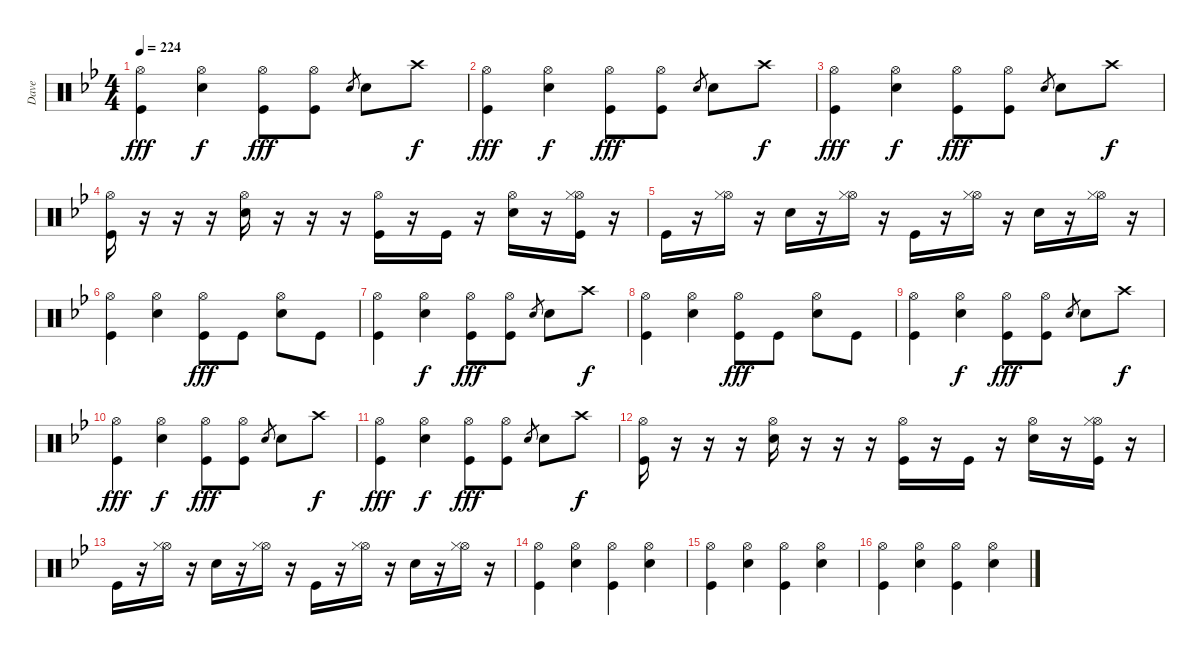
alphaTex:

\track ("Dave" "Dave") {instrument percussion}
\staff {score}
\articulation defaults
\ts (4 4)
\tempo 224
\clef neutral
\ks gminor
("Hi-Hat (open)" "Kick (hit)").4{dy fff} ("Hi-Hat (open)" "Snare (hit) 2").4{dy f} ("Hi-Hat (open)" "Kick (hit)").8{dy fff} ("Hi-Hat (open)" "Kick (hit)").8 "Snare (hit) 2".8{gr} "Snare (hit) 2".8 "Crash high (hit)".8{dy f} |
("Hi-Hat (open)" "Kick (hit)").4{dy fff} ("Hi-Hat (open)" "Snare (hit) 2").4{dy f} ("Hi-Hat (open)" "Kick (hit)").8{dy fff} ("Hi-Hat (open)" "Kick (hit)").8 "Snare (hit) 2".8{gr} "Snare (hit) 2".8 "Crash high (hit)".8{dy f} |
("Hi-Hat (open)" "Kick (hit)").4{dy fff} ("Hi-Hat (open)" "Snare (hit) 2").4{dy f} ("Hi-Hat (open)" "Kick (hit)").8{dy fff} ("Hi-Hat (open)" "Kick (hit)").8 "Snare (hit) 2".8{gr} "Snare (hit) 2".8 "Crash high (hit)".8{dy f} |
("Hi-Hat (open)" "Kick (hit)").16 r.16 r.16 r.16 ("Hi-Hat (open)" "Snare (hit) 2").16 r.16 r.16 r.16 ("Hi-Hat (open)" "Kick (hit)").16 r.16 "Kick (hit)".16 r.16 ("Hi-Hat (open)" "Snare (hit) 2").16 r.16 ("Hi-Hat (open)" "Hi-Hat (closed)" "Kick (hit)").16 r.16 |
"Kick (hit)".16 r.16 ("Hi-Hat (open)" "Hi-Hat (closed)").16 r.16 "Snare (hit) 2".16 r.16 ("Hi-Hat (open)" "Hi-Hat (closed)").16 r.16 "Kick (hit)".16 r.16 ("Hi-Hat (open)" "Hi-Hat (closed)").16 r.16 "Snare (hit) 2".16 r.16 ("Hi-Hat (open)" "Hi-Hat (closed)").16 r.16 |
("Hi-Hat (open)" "Kick (hit)").4 ("Hi-Hat (open)" "Snare (hit) 2").4 ("Hi-Hat (open)" "Kick (hit)").8{dy fff} "Kick (hit)".8 ("Hi-Hat (open)" "Snare (hit) 2").8 "Kick (hit)".8 |
("Hi-Hat (open)" "Kick (hit)").4 ("Hi-Hat (open)" "Snare (hit) 2").4{dy f} ("Hi-Hat (open)" "Kick (hit)").8{dy fff} ("Hi-Hat (open)" "Kick (hit)").8 "Snare (hit) 2".8{gr} "Snare (hit) 2".8 "Crash high (hit)".8{dy f} |
("Hi-Hat (open)" "Kick (hit)").4 ("Hi-Hat (open)" "Snare (hit) 2").4 ("Hi-Hat (open)" "Kick (hit)").8{dy fff} "Kick (hit)".8 ("Hi-Hat (open)" "Snare (hit) 2").8 "Kick (hit)".8 |
("Hi-Hat (open)" "Kick (hit)").4 ("Hi-Hat (open)" "Snare (hit) 2").4{dy f} ("Hi-Hat (open)" "Kick (hit)").8{dy fff} ("Hi-Hat (open)" "Kick (hit)").8 "Snare (hit) 2".8{gr} "Snare (hit) 2".8 "Crash high (hit)".8{dy f} |
("Hi-Hat (open)" "Kick (hit)").4{dy fff} ("Hi-Hat (open)" "Snare (hit) 2").4{dy f} ("Hi-Hat (open)" "Kick (hit)").8{dy fff} ("Hi-Hat (open)" "Kick (hit)").8 "Snare (hit) 2".8{gr} "Snare (hit) 2".8 "Crash high (hit)".8{dy f} |
("Hi-Hat (open)" "Kick (hit)").4{dy fff} ("Hi-Hat (open)" "Snare (hit) 2").4{dy f} ("Hi-Hat (open)" "Kick (hit)").8{dy fff} ("Hi-Hat (open)" "Kick (hit)").8 "Snare (hit) 2".8{gr} "Snare (hit) 2".8 "Crash high (hit)".8{dy f} |
("Hi-Hat (open)" "Kick (hit)").16 r.16 r.16 r.16 ("Hi-Hat (open)" "Snare (hit) 2").16 r.16 r.16 r.16 ("Hi-Hat (open)" "Kick (hit)").16 r.16 "Kick (hit)".16 r.16 ("Hi-Hat (open)" "Snare (hit) 2").16 r.16 ("Hi-Hat (open)" "Hi-Hat (closed)" "Kick (hit)").16 r.16 |
"Kick (hit)".16 r.16 ("Hi-Hat (open)" "Hi-Hat (closed)").16 r.16 "Snare (hit) 2".16 r.16 ("Hi-Hat (open)" "Hi-Hat (closed)").16 r.16 "Kick (hit)".16 r.16 ("Hi-Hat (open)" "Hi-Hat (closed)").16 r.16 "Snare (hit) 2".16 r.16 ("Hi-Hat (open)" "Hi-Hat (closed)").16 r.16 |
("Hi-Hat (open)" "Kick (hit)").4 ("Hi-Hat (open)" "Snare (hit) 2").4 ("Hi-Hat (open)" "Kick (hit)").4 ("Hi-Hat (open)" "Snare (hit) 2").4 |
("Hi-Hat (open)" "Kick (hit)").4 ("Hi-Hat (open)" "Snare (hit) 2").4 ("Hi-Hat (open)" "Kick (hit)").4 ("Hi-Hat (open)" "Snare (hit) 2").4 |
("Hi-Hat (open)" "Kick (hit)").4 ("Hi-Hat (open)" "Snare (hit) 2").4 ("Hi-Hat (open)" "Kick (hit)").4 ("Hi-Hat (open)" "Snare (hit) 2").4
